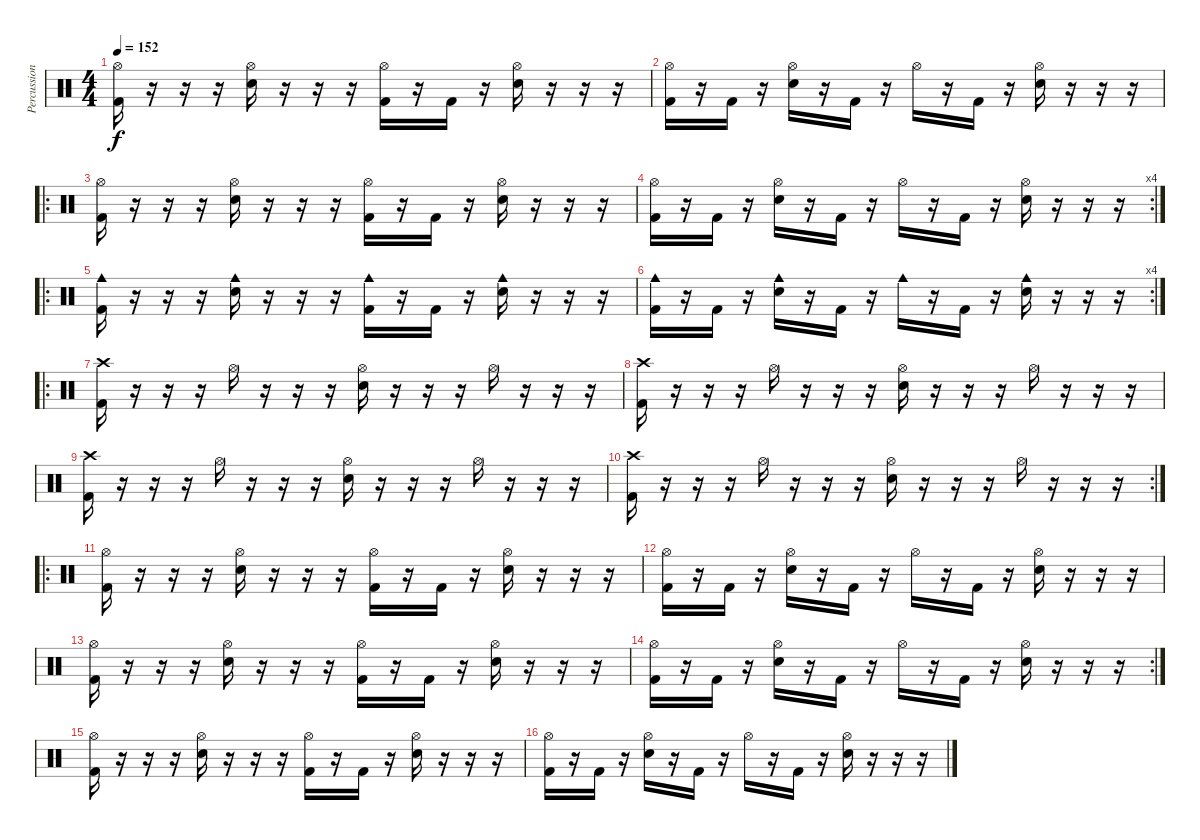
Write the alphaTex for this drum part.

\track ("Percussions" "Percussion") {instrument percussion}
\staff {score}
\articulation defaults
\ts (4 4)
\tempo 152
\clef neutral
\ks c
("Kick (hit) 2" "Hi-Hat (open)").16{dy f} r.16 r.16 r.16 ("Electric Snare (hit)" "Hi-Hat (open)").16 r.16 r.16 r.16 ("Kick (hit) 2" "Hi-Hat (open)").16 r.16 "Kick (hit) 2".16 r.16 ("Electric Snare (hit)" "Hi-Hat (open)").16 r.16 r.16 r.16 |
("Kick (hit) 2" "Hi-Hat (open)").16 r.16 "Kick (hit) 2".16 r.16 ("Electric Snare (hit)" "Hi-Hat (open)").16 r.16 "Kick (hit) 2".16 r.16 "Hi-Hat (open)".16 r.16 "Kick (hit) 2".16 r.16 ("Electric Snare (hit)" "Hi-Hat (open)").16 r.16 r.16 r.16 |
\ro
("Kick (hit) 2" "Hi-Hat (open)").16 r.16 r.16 r.16 ("Electric Snare (hit)" "Hi-Hat (open)").16 r.16 r.16 r.16 ("Kick (hit) 2" "Hi-Hat (open)").16 r.16 "Kick (hit) 2".16 r.16 ("Electric Snare (hit)" "Hi-Hat (open)").16 r.16 r.16 r.16 |
\rc 4
("Kick (hit) 2" "Hi-Hat (open)").16 r.16 "Kick (hit) 2".16 r.16 ("Electric Snare (hit)" "Hi-Hat (open)").16 r.16 "Kick (hit) 2".16 r.16 "Hi-Hat (open)".16 r.16 "Kick (hit) 2".16 r.16 ("Electric Snare (hit)" "Hi-Hat (open)").16 r.16 r.16 r.16 |
\ro
("Kick (hit) 2" "Cowbell medium (hit)").16 r.16 r.16 r.16 ("Electric Snare (hit)" "Cowbell medium (hit)").16 r.16 r.16 r.16 ("Kick (hit) 2" "Cowbell medium (hit)").16 r.16 "Kick (hit) 2".16 r.16 ("Electric Snare (hit)" "Cowbell medium (hit)").16 r.16 r.16 r.16 |
\rc 4
("Kick (hit) 2" "Cowbell medium (hit)").16 r.16 "Kick (hit) 2".16 r.16 ("Electric Snare (hit)" "Cowbell medium (hit)").16 r.16 "Kick (hit) 2".16 r.16 "Cowbell medium (hit)".16 r.16 "Kick (hit) 2".16 r.16 ("Electric Snare (hit)" "Cowbell medium (hit)").16 r.16 r.16 r.16 |
\ro
("Kick (hit) 2" "Crash high (hit)").16 r.16 r.16 r.16 "Hi-Hat (open)".16 r.16 r.16 r.16 ("Electric Snare (hit)" "Hi-Hat (open)").16 r.16 r.16 r.16 "Hi-Hat (open)".16 r.16 r.16 r.16 |
("Kick (hit) 2" "Crash high (hit)").16 r.16 r.16 r.16 "Hi-Hat (open)".16 r.16 r.16 r.16 ("Electric Snare (hit)" "Hi-Hat (open)").16 r.16 r.16 r.16 "Hi-Hat (open)".16 r.16 r.16 r.16 |
("Kick (hit) 2" "Crash high (hit)").16 r.16 r.16 r.16 "Hi-Hat (open)".16 r.16 r.16 r.16 ("Electric Snare (hit)" "Hi-Hat (open)").16 r.16 r.16 r.16 "Hi-Hat (open)".16 r.16 r.16 r.16 |
\rc 2
("Kick (hit) 2" "Crash high (hit)").16 r.16 r.16 r.16 "Hi-Hat (open)".16 r.16 r.16 r.16 ("Electric Snare (hit)" "Hi-Hat (open)").16 r.16 r.16 r.16 "Hi-Hat (open)".16 r.16 r.16 r.16 |
\ro
("Kick (hit) 2" "Hi-Hat (open)").16 r.16 r.16 r.16 ("Electric Snare (hit)" "Hi-Hat (open)").16 r.16 r.16 r.16 ("Kick (hit) 2" "Hi-Hat (open)").16 r.16 "Kick (hit) 2".16 r.16 ("Electric Snare (hit)" "Hi-Hat (open)").16 r.16 r.16 r.16 |
("Kick (hit) 2" "Hi-Hat (open)").16 r.16 "Kick (hit) 2".16 r.16 ("Electric Snare (hit)" "Hi-Hat (open)").16 r.16 "Kick (hit) 2".16 r.16 "Hi-Hat (open)".16 r.16 "Kick (hit) 2".16 r.16 ("Electric Snare (hit)" "Hi-Hat (open)").16 r.16 r.16 r.16 |
("Kick (hit) 2" "Hi-Hat (open)").16 r.16 r.16 r.16 ("Electric Snare (hit)" "Hi-Hat (open)").16 r.16 r.16 r.16 ("Kick (hit) 2" "Hi-Hat (open)").16 r.16 "Kick (hit) 2".16 r.16 ("Electric Snare (hit)" "Hi-Hat (open)").16 r.16 r.16 r.16 |
\rc 2
("Kick (hit) 2" "Hi-Hat (open)").16 r.16 "Kick (hit) 2".16 r.16 ("Electric Snare (hit)" "Hi-Hat (open)").16 r.16 "Kick (hit) 2".16 r.16 "Hi-Hat (open)".16 r.16 "Kick (hit) 2".16 r.16 ("Electric Snare (hit)" "Hi-Hat (open)").16 r.16 r.16 r.16 |
("Kick (hit) 2" "Hi-Hat (open)").16 r.16 r.16 r.16 ("Electric Snare (hit)" "Hi-Hat (open)").16 r.16 r.16 r.16 ("Kick (hit) 2" "Hi-Hat (open)").16 r.16 "Kick (hit) 2".16 r.16 ("Electric Snare (hit)" "Hi-Hat (open)").16 r.16 r.16 r.16 |
("Kick (hit) 2" "Hi-Hat (open)").16 r.16 "Kick (hit) 2".16 r.16 ("Electric Snare (hit)" "Hi-Hat (open)").16 r.16 "Kick (hit) 2".16 r.16 "Hi-Hat (open)".16 r.16 "Kick (hit) 2".16 r.16 ("Electric Snare (hit)" "Hi-Hat (open)").16 r.16 r.16 r.16
